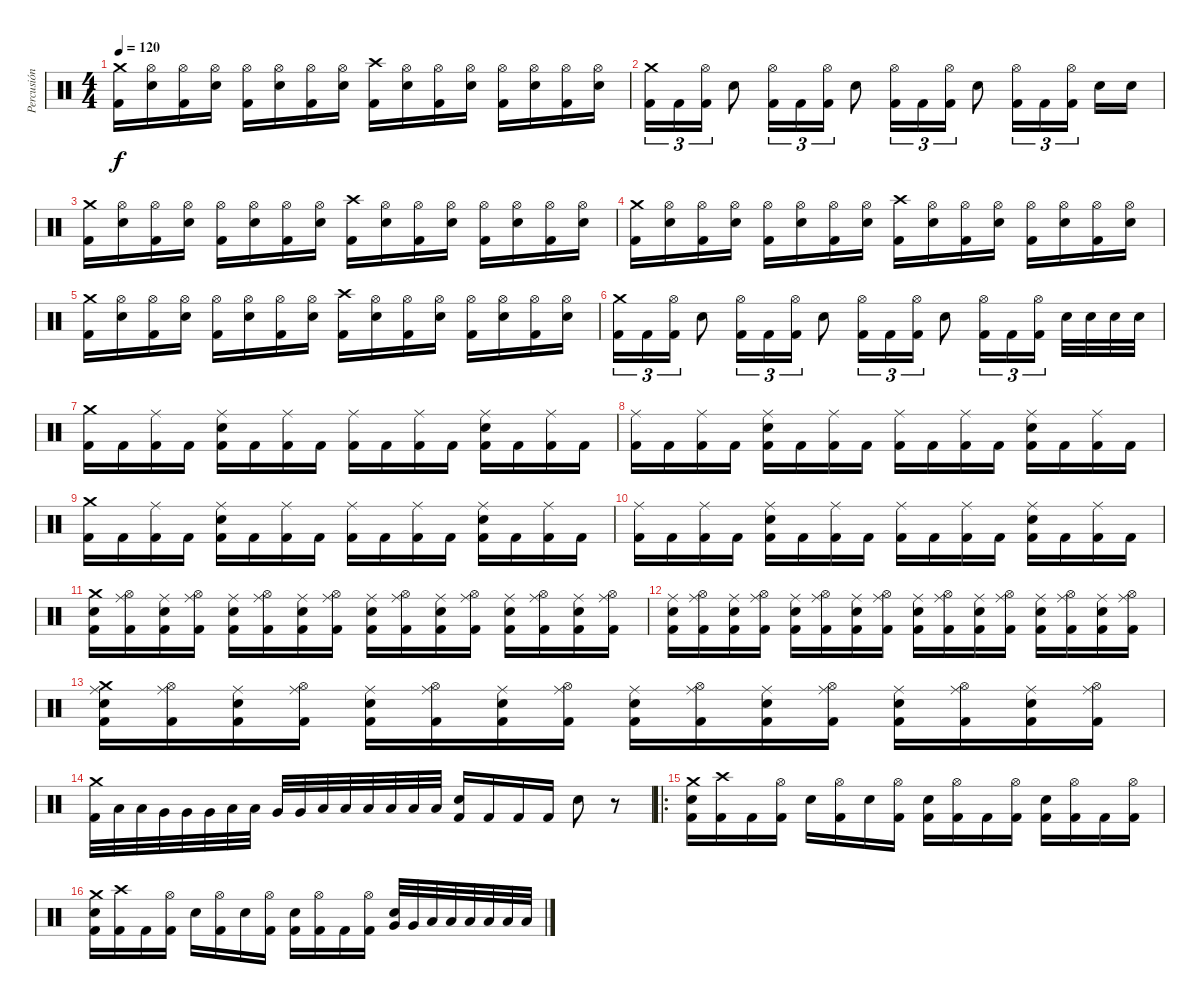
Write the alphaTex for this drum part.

\track ("Percusión" "Percusión") {instrument percussion}
\staff {score}
\articulation defaults
\ts (4 4)
\tempo 120
\clef neutral
\ks c
("Crash medium (hit)" "Kick (hit) 2").16{dy f} ("Hi-Hat (open)" "Electric Snare (hit)").16 ("Hi-Hat (open)" "Kick (hit) 2").16 ("Hi-Hat (open)" "Electric Snare (hit)").16 ("Hi-Hat (open)" "Kick (hit) 2").16 ("Hi-Hat (open)" "Electric Snare (hit)").16 ("Hi-Hat (open)" "Kick (hit) 2").16 ("Hi-Hat (open)" "Electric Snare (hit)").16 ("Crash high (hit)" "Kick (hit) 2").16 ("Hi-Hat (open)" "Electric Snare (hit)").16 ("Hi-Hat (open)" "Kick (hit) 2").16 ("Hi-Hat (open)" "Electric Snare (hit)").16 ("Hi-Hat (open)" "Kick (hit) 2").16 ("Hi-Hat (open)" "Electric Snare (hit)").16 ("Hi-Hat (open)" "Kick (hit) 2").16 ("Hi-Hat (open)" "Electric Snare (hit)").16 |
("Crash medium (hit)" "Kick (hit) 2").16{tu (3 2)} "Kick (hit) 2".16{tu (3 2)} ("Hi-Hat (open)" "Kick (hit) 2").16{tu (3 2)} "Electric Snare (hit)".8 ("Hi-Hat (open)" "Kick (hit) 2").16{tu (3 2)} "Kick (hit) 2".16{tu (3 2)} ("Hi-Hat (open)" "Kick (hit) 2").16{tu (3 2)} "Electric Snare (hit)".8 ("Hi-Hat (open)" "Kick (hit) 2").16{tu (3 2)} "Kick (hit) 2".16{tu (3 2)} ("Hi-Hat (open)" "Kick (hit) 2").16{tu (3 2)} "Electric Snare (hit)".8 ("Hi-Hat (open)" "Kick (hit) 2").16{tu (3 2)} "Kick (hit) 2".16{tu (3 2)} ("Hi-Hat (open)" "Kick (hit) 2").16{tu (3 2) beam splitsecondary} "Electric Snare (hit)".16 "Electric Snare (hit)".16 |
("Crash medium (hit)" "Kick (hit) 2").16 ("Hi-Hat (open)" "Electric Snare (hit)").16 ("Hi-Hat (open)" "Kick (hit) 2").16 ("Hi-Hat (open)" "Electric Snare (hit)").16 ("Hi-Hat (open)" "Kick (hit) 2").16 ("Hi-Hat (open)" "Electric Snare (hit)").16 ("Hi-Hat (open)" "Kick (hit) 2").16 ("Hi-Hat (open)" "Electric Snare (hit)").16 ("Crash high (hit)" "Kick (hit) 2").16 ("Hi-Hat (open)" "Electric Snare (hit)").16 ("Hi-Hat (open)" "Kick (hit) 2").16 ("Hi-Hat (open)" "Electric Snare (hit)").16 ("Hi-Hat (open)" "Kick (hit) 2").16 ("Hi-Hat (open)" "Electric Snare (hit)").16 ("Hi-Hat (open)" "Kick (hit) 2").16 ("Hi-Hat (open)" "Electric Snare (hit)").16 |
("Crash medium (hit)" "Kick (hit) 2").16 ("Hi-Hat (open)" "Electric Snare (hit)").16 ("Hi-Hat (open)" "Kick (hit) 2").16 ("Hi-Hat (open)" "Electric Snare (hit)").16 ("Hi-Hat (open)" "Kick (hit) 2").16 ("Hi-Hat (open)" "Electric Snare (hit)").16 ("Hi-Hat (open)" "Kick (hit) 2").16 ("Hi-Hat (open)" "Electric Snare (hit)").16 ("Crash high (hit)" "Kick (hit) 2").16 ("Hi-Hat (open)" "Electric Snare (hit)").16 ("Hi-Hat (open)" "Kick (hit) 2").16 ("Hi-Hat (open)" "Electric Snare (hit)").16 ("Hi-Hat (open)" "Kick (hit) 2").16 ("Hi-Hat (open)" "Electric Snare (hit)").16 ("Hi-Hat (open)" "Kick (hit) 2").16 ("Hi-Hat (open)" "Electric Snare (hit)").16 |
("Crash medium (hit)" "Kick (hit) 2").16 ("Hi-Hat (open)" "Electric Snare (hit)").16 ("Hi-Hat (open)" "Kick (hit) 2").16 ("Hi-Hat (open)" "Electric Snare (hit)").16 ("Hi-Hat (open)" "Kick (hit) 2").16 ("Hi-Hat (open)" "Electric Snare (hit)").16 ("Hi-Hat (open)" "Kick (hit) 2").16 ("Hi-Hat (open)" "Electric Snare (hit)").16 ("Crash high (hit)" "Kick (hit) 2").16 ("Hi-Hat (open)" "Electric Snare (hit)").16 ("Hi-Hat (open)" "Kick (hit) 2").16 ("Hi-Hat (open)" "Electric Snare (hit)").16 ("Hi-Hat (open)" "Kick (hit) 2").16 ("Hi-Hat (open)" "Electric Snare (hit)").16 ("Hi-Hat (open)" "Kick (hit) 2").16 ("Hi-Hat (open)" "Electric Snare (hit)").16 |
("Crash medium (hit)" "Kick (hit) 2").16{tu (3 2)} "Kick (hit) 2".16{tu (3 2)} ("Hi-Hat (open)" "Kick (hit) 2").16{tu (3 2)} "Electric Snare (hit)".8 ("Hi-Hat (open)" "Kick (hit) 2").16{tu (3 2)} "Kick (hit) 2".16{tu (3 2)} ("Hi-Hat (open)" "Kick (hit) 2").16{tu (3 2)} "Electric Snare (hit)".8 ("Hi-Hat (open)" "Kick (hit) 2").16{tu (3 2)} "Kick (hit) 2".16{tu (3 2)} ("Hi-Hat (open)" "Kick (hit) 2").16{tu (3 2)} "Electric Snare (hit)".8 ("Hi-Hat (open)" "Kick (hit) 2").16{tu (3 2)} "Kick (hit) 2".16{tu (3 2)} ("Hi-Hat (open)" "Kick (hit) 2").16{tu (3 2) beam splitsecondary} "Electric Snare (hit)".32 "Electric Snare (hit)".32 "Electric Snare (hit)".32 "Electric Snare (hit)".32 |
("Crash medium (hit)" "Kick (hit) 2").16 "Kick (hit) 2".16 ("Ride (middle)" "Kick (hit) 2").16 "Kick (hit) 2".16 ("Ride (middle)" "Electric Snare (hit)" "Kick (hit) 2").16 "Kick (hit) 2".16 ("Ride (middle)" "Kick (hit) 2").16 "Kick (hit) 2".16 ("Ride (middle)" "Kick (hit) 2").16 "Kick (hit) 2".16 ("Ride (middle)" "Kick (hit) 2").16 "Kick (hit) 2".16 ("Ride (middle)" "Electric Snare (hit)" "Kick (hit) 2").16 "Kick (hit) 2".16 ("Ride (middle)" "Kick (hit) 2").16 "Kick (hit) 2".16 |
("Ride (middle)" "Kick (hit) 2").16 "Kick (hit) 2".16 ("Ride (middle)" "Kick (hit) 2").16 "Kick (hit) 2".16 ("Ride (middle)" "Electric Snare (hit)" "Kick (hit) 2").16 "Kick (hit) 2".16 ("Ride (middle)" "Kick (hit) 2").16 "Kick (hit) 2".16 ("Ride (middle)" "Kick (hit) 2").16 "Kick (hit) 2".16 ("Ride (middle)" "Kick (hit) 2").16 "Kick (hit) 2".16 ("Ride (middle)" "Electric Snare (hit)" "Kick (hit) 2").16 "Kick (hit) 2".16 ("Ride (middle)" "Kick (hit) 2").16 "Kick (hit) 2".16 |
("Crash medium (hit)" "Kick (hit) 2").16 "Kick (hit) 2".16 ("Ride (middle)" "Kick (hit) 2").16 "Kick (hit) 2".16 ("Ride (middle)" "Electric Snare (hit)" "Kick (hit) 2").16 "Kick (hit) 2".16 ("Ride (middle)" "Kick (hit) 2").16 "Kick (hit) 2".16 ("Ride (middle)" "Kick (hit) 2").16 "Kick (hit) 2".16 ("Ride (middle)" "Kick (hit) 2").16 "Kick (hit) 2".16 ("Ride (middle)" "Electric Snare (hit)" "Kick (hit) 2").16 "Kick (hit) 2".16 ("Ride (middle)" "Kick (hit) 2").16 "Kick (hit) 2".16 |
("Ride (middle)" "Kick (hit) 2").16 "Kick (hit) 2".16 ("Ride (middle)" "Kick (hit) 2").16 "Kick (hit) 2".16 ("Ride (middle)" "Electric Snare (hit)" "Kick (hit) 2").16 "Kick (hit) 2".16 ("Ride (middle)" "Kick (hit) 2").16 "Kick (hit) 2".16 ("Ride (middle)" "Kick (hit) 2").16 "Kick (hit) 2".16 ("Ride (middle)" "Kick (hit) 2").16 "Kick (hit) 2".16 ("Ride (middle)" "Electric Snare (hit)" "Kick (hit) 2").16 "Kick (hit) 2".16 ("Ride (middle)" "Kick (hit) 2").16 "Kick (hit) 2".16 |
("Crash medium (hit)" "Electric Snare (hit)" "Kick (hit) 2").16 ("Ride (middle)" "Hi-Hat (open)" "Kick (hit) 2").16 ("Ride (middle)" "Electric Snare (hit)" "Kick (hit) 2").16 ("Ride (middle)" "Hi-Hat (open)" "Kick (hit) 2").16 ("Ride (middle)" "Electric Snare (hit)" "Kick (hit) 2").16 ("Ride (middle)" "Hi-Hat (open)" "Kick (hit) 2").16 ("Ride (middle)" "Electric Snare (hit)" "Kick (hit) 2").16 ("Ride (middle)" "Hi-Hat (open)" "Kick (hit) 2").16 ("Ride (middle)" "Electric Snare (hit)" "Kick (hit) 2").16 ("Ride (middle)" "Hi-Hat (open)" "Kick (hit) 2").16 ("Ride (middle)" "Electric Snare (hit)" "Kick (hit) 2").16 ("Ride (middle)" "Hi-Hat (open)" "Kick (hit) 2").16 ("Ride (middle)" "Electric Snare (hit)" "Kick (hit) 2").16 ("Ride (middle)" "Hi-Hat (open)" "Kick (hit) 2").16 ("Ride (middle)" "Electric Snare (hit)" "Kick (hit) 2").16 ("Ride (middle)" "Hi-Hat (open)" "Kick (hit) 2").16 |
("Ride (middle)" "Electric Snare (hit)" "Kick (hit) 2").16 ("Ride (middle)" "Hi-Hat (open)" "Kick (hit) 2").16 ("Ride (middle)" "Electric Snare (hit)" "Kick (hit) 2").16 ("Ride (middle)" "Hi-Hat (open)" "Kick (hit) 2").16 ("Ride (middle)" "Electric Snare (hit)" "Kick (hit) 2").16 ("Ride (middle)" "Hi-Hat (open)" "Kick (hit) 2").16 ("Ride (middle)" "Electric Snare (hit)" "Kick (hit) 2").16 ("Ride (middle)" "Hi-Hat (open)" "Kick (hit) 2").16 ("Ride (middle)" "Electric Snare (hit)" "Kick (hit) 2").16 ("Ride (middle)" "Hi-Hat (open)" "Kick (hit) 2").16 ("Ride (middle)" "Electric Snare (hit)" "Kick (hit) 2").16 ("Ride (middle)" "Hi-Hat (open)" "Kick (hit) 2").16 ("Ride (middle)" "Electric Snare (hit)" "Kick (hit) 2").16 ("Ride (middle)" "Hi-Hat (open)" "Kick (hit) 2").16 ("Ride (middle)" "Electric Snare (hit)" "Kick (hit) 2").16 ("Ride (middle)" "Hi-Hat (open)" "Kick (hit) 2").16 |
("Ride (middle)" "Crash medium (hit)" "Electric Snare (hit)" "Kick (hit) 2").16 ("Ride (middle)" "Hi-Hat (open)" "Kick (hit) 2").16 ("Ride (middle)" "Electric Snare (hit)" "Kick (hit) 2").16 ("Ride (middle)" "Hi-Hat (open)" "Kick (hit) 2").16 ("Ride (middle)" "Electric Snare (hit)" "Kick (hit) 2").16 ("Ride (middle)" "Hi-Hat (open)" "Kick (hit) 2").16 ("Ride (middle)" "Electric Snare (hit)" "Kick (hit) 2").16 ("Ride (middle)" "Hi-Hat (open)" "Kick (hit) 2").16 ("Ride (middle)" "Electric Snare (hit)" "Kick (hit) 2").16 ("Ride (middle)" "Hi-Hat (open)" "Kick (hit) 2").16 ("Ride (middle)" "Electric Snare (hit)" "Kick (hit) 2").16 ("Ride (middle)" "Hi-Hat (open)" "Kick (hit) 2").16 ("Ride (middle)" "Electric Snare (hit)" "Kick (hit) 2").16 ("Ride (middle)" "Hi-Hat (open)" "Kick (hit) 2").16 ("Ride (middle)" "Electric Snare (hit)" "Kick (hit) 2").16 ("Ride (middle)" "Hi-Hat (open)" "Kick (hit) 2").16 |
("Crash medium (hit)" "Kick (hit) 2").32 "Low Tom (hit)".32 "Low Tom (hit)".32 "Very Low Tom (hit)".32 "Very Low Tom (hit)".32 "Very Low Tom (hit)".32 "Low Floor Tom (hit)".32 "Low Floor Tom (hit)".32 "Very Low Tom (hit)".32 "Very Low Tom (hit)".32 "Low Floor Tom (hit)".32 "Low Floor Tom (hit)".32 "Low Tom (hit)".32 "Low Tom (hit)".32 "Low Floor Tom (hit)".32 "Low Floor Tom (hit)".32 ("Electric Snare (hit)" "Kick (hit) 2").16 "Kick (hit) 2".16 "Kick (hit) 2".16 "Kick (hit) 2".16 "Electric Snare (hit)".8 r.8 |
\ro
("Crash medium (hit)" "Electric Snare (hit)" "Kick (hit) 2").16 ("Crash high (hit)" "Kick (hit) 2").16 "Kick (hit) 2".16 ("Hi-Hat (open)" "Kick (hit) 2").16 "Electric Snare (hit)".16 ("Hi-Hat (open)" "Kick (hit) 2").16 "Electric Snare (hit)".16 ("Hi-Hat (open)" "Kick (hit) 2").16 ("Electric Snare (hit)" "Kick (hit) 2").16 ("Hi-Hat (open)" "Kick (hit) 2").16 "Kick (hit) 2".16 ("Hi-Hat (open)" "Kick (hit) 2").16 ("Electric Snare (hit)" "Kick (hit) 2").16 ("Hi-Hat (open)" "Kick (hit) 2").16 "Kick (hit) 2".16 ("Hi-Hat (open)" "Kick (hit) 2").16 |
("Crash medium (hit)" "Electric Snare (hit)" "Kick (hit) 2").16 ("Crash high (hit)" "Kick (hit) 2").16 "Kick (hit) 2".16 ("Hi-Hat (open)" "Kick (hit) 2").16 "Electric Snare (hit)".16 ("Hi-Hat (open)" "Kick (hit) 2").16 "Electric Snare (hit)".16 ("Hi-Hat (open)" "Kick (hit) 2").16 ("Electric Snare (hit)" "Kick (hit) 2").16 ("Hi-Hat (open)" "Kick (hit) 2").16 "Kick (hit) 2".16 ("Hi-Hat (open)" "Kick (hit) 2").16 ("Very Low Tom (hit)" "Electric Snare (hit)").32 "Very Low Tom (hit)".32 "Low Floor Tom (hit)".32 "Low Floor Tom (hit)".32 "Low Tom (hit)".32 "Low Tom (hit)".32 "Low Floor Tom (hit)".32 "Low Floor Tom (hit)".32
